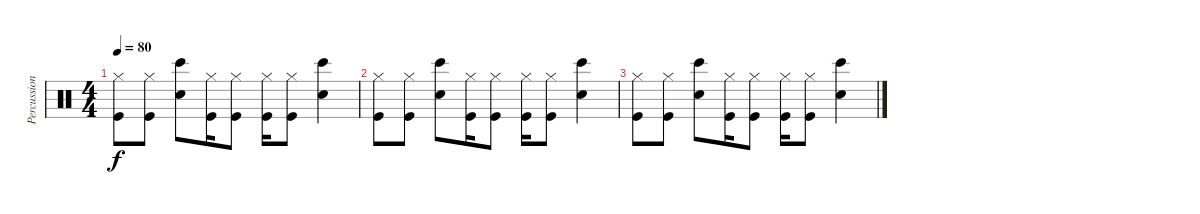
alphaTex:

\track ("Percussions" "Percussion") {instrument percussion}
\staff {score}
\articulation defaults
\ts (4 4)
\tempo 80
\clef neutral
\ks c
("Hi-Hat (closed)" "Kick (hit)").8{dy f} ("Hi-Hat (closed)" "Kick (hit)").8 ("Electric Snare (hit)" "Bongo High (hit)").8 ("Hi-Hat (closed)" "Kick (hit)").16 ("Hi-Hat (closed)" "Kick (hit)").8 ("Hi-Hat (closed)" "Kick (hit)").16 ("Hi-Hat (closed)" "Kick (hit)").8 ("Electric Snare (hit)" "Bongo High (hit)").4 |
("Hi-Hat (closed)" "Kick (hit)").8 ("Hi-Hat (closed)" "Kick (hit)").8 ("Electric Snare (hit)" "Bongo High (hit)").8 ("Hi-Hat (closed)" "Kick (hit)").16 ("Hi-Hat (closed)" "Kick (hit)").8 ("Hi-Hat (closed)" "Kick (hit)").16 ("Hi-Hat (closed)" "Kick (hit)").8 ("Electric Snare (hit)" "Bongo High (hit)").4 |
("Hi-Hat (closed)" "Kick (hit)").8 ("Hi-Hat (closed)" "Kick (hit)").8 ("Electric Snare (hit)" "Bongo High (hit)").8 ("Hi-Hat (closed)" "Kick (hit)").16 ("Hi-Hat (closed)" "Kick (hit)").8 ("Hi-Hat (closed)" "Kick (hit)").16 ("Hi-Hat (closed)" "Kick (hit)").8 ("Electric Snare (hit)" "Bongo High (hit)").4
